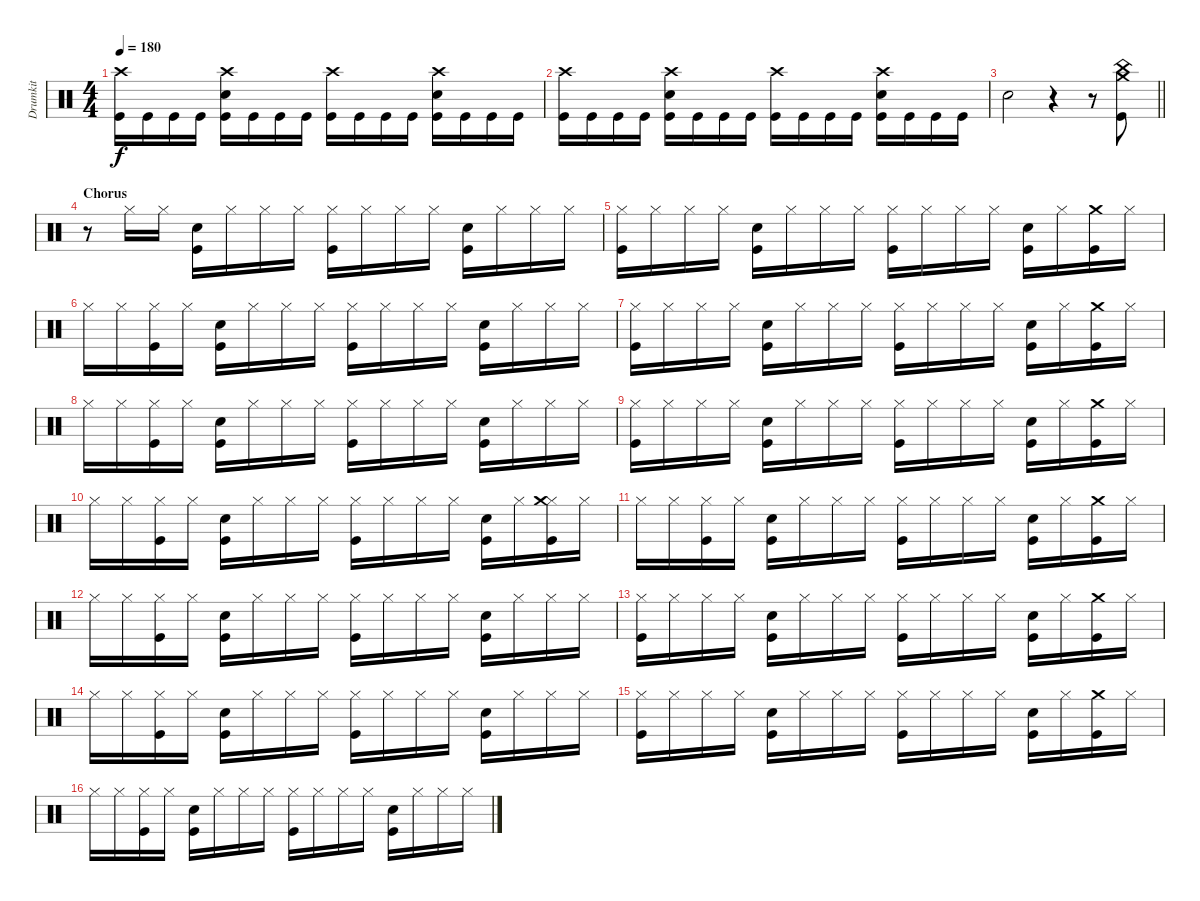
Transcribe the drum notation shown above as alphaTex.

\track ("Drumkit" "Drumkit") {instrument percussion}
\staff {score}
\articulation defaults
\ts (4 4)
\tempo 180
\clef neutral
\ks c
("Crash high (hit)" "Kick (hit)").16{dy f} "Kick (hit)".16 "Kick (hit)".16 "Kick (hit)".16 ("Crash high (hit)" "Snare (hit) 2" "Kick (hit)").16 "Kick (hit)".16 "Kick (hit)".16 "Kick (hit)".16 ("Crash high (hit)" "Kick (hit)").16 "Kick (hit)".16 "Kick (hit)".16 "Kick (hit)".16 ("Crash high (hit)" "Snare (hit) 2" "Kick (hit)").16 "Kick (hit)".16 "Kick (hit)".16 "Kick (hit)".16 |
("Crash high (hit)" "Kick (hit)").16 "Kick (hit)".16 "Kick (hit)".16 "Kick (hit)".16 ("Crash high (hit)" "Snare (hit) 2" "Kick (hit)").16 "Kick (hit)".16 "Kick (hit)".16 "Kick (hit)".16 ("Crash high (hit)" "Kick (hit)").16 "Kick (hit)".16 "Kick (hit)".16 "Kick (hit)".16 ("Crash high (hit)" "Snare (hit) 2" "Kick (hit)").16 "Kick (hit)".16 "Kick (hit)".16 "Kick (hit)".16 |
\barLineRight lightlight "Snare (hit) 2".2
r.4 r.8 ("Crash medium (hit)" "Kick (hit)" "China (hit)").8 |
\section ("" "Chorus")
r.8 "Hi-Hat (closed)".16 "Hi-Hat (closed)".16 ("Snare (hit) 2" "Kick (hit)").16 "Hi-Hat (closed)".16 "Hi-Hat (closed)".16 "Hi-Hat (closed)".16 ("Hi-Hat (closed)" "Kick (hit)").16 "Hi-Hat (closed)".16 "Hi-Hat (closed)".16 "Hi-Hat (closed)".16 ("Snare (hit) 2" "Kick (hit)").16 "Hi-Hat (closed)".16 "Hi-Hat (closed)".16 "Hi-Hat (closed)".16 |
("Hi-Hat (closed)" "Kick (hit)").16 "Hi-Hat (closed)".16 "Hi-Hat (closed)".16 "Hi-Hat (closed)".16 ("Snare (hit) 2" "Kick (hit)").16 "Hi-Hat (closed)".16 "Hi-Hat (closed)".16 "Hi-Hat (closed)".16 ("Hi-Hat (closed)" "Kick (hit)").16 "Hi-Hat (closed)".16 "Hi-Hat (closed)".16 "Hi-Hat (closed)".16 ("Snare (hit) 2" "Kick (hit)").16 "Hi-Hat (closed)".16 ("Crash medium (hit)" "Kick (hit)").16 "Hi-Hat (closed)".16 |
"Hi-Hat (closed)".16 "Hi-Hat (closed)".16 ("Hi-Hat (closed)" "Kick (hit)").16 "Hi-Hat (closed)".16 ("Snare (hit) 2" "Kick (hit)").16 "Hi-Hat (closed)".16 "Hi-Hat (closed)".16 "Hi-Hat (closed)".16 ("Hi-Hat (closed)" "Kick (hit)").16 "Hi-Hat (closed)".16 "Hi-Hat (closed)".16 "Hi-Hat (closed)".16 ("Snare (hit) 2" "Kick (hit)").16 "Hi-Hat (closed)".16 "Hi-Hat (closed)".16 "Hi-Hat (closed)".16 |
("Hi-Hat (closed)" "Kick (hit)").16 "Hi-Hat (closed)".16 "Hi-Hat (closed)".16 "Hi-Hat (closed)".16 ("Snare (hit) 2" "Kick (hit)").16 "Hi-Hat (closed)".16 "Hi-Hat (closed)".16 "Hi-Hat (closed)".16 ("Hi-Hat (closed)" "Kick (hit)").16 "Hi-Hat (closed)".16 "Hi-Hat (closed)".16 "Hi-Hat (closed)".16 ("Snare (hit) 2" "Kick (hit)").16 "Hi-Hat (closed)".16 ("Crash medium (hit)" "Kick (hit)").16 "Hi-Hat (closed)".16 |
"Hi-Hat (closed)".16 "Hi-Hat (closed)".16 ("Hi-Hat (closed)" "Kick (hit)").16 "Hi-Hat (closed)".16 ("Snare (hit) 2" "Kick (hit)").16 "Hi-Hat (closed)".16 "Hi-Hat (closed)".16 "Hi-Hat (closed)".16 ("Hi-Hat (closed)" "Kick (hit)").16 "Hi-Hat (closed)".16 "Hi-Hat (closed)".16 "Hi-Hat (closed)".16 ("Snare (hit) 2" "Kick (hit)").16 "Hi-Hat (closed)".16 "Hi-Hat (closed)".16 "Hi-Hat (closed)".16 |
("Hi-Hat (closed)" "Kick (hit)").16 "Hi-Hat (closed)".16 "Hi-Hat (closed)".16 "Hi-Hat (closed)".16 ("Snare (hit) 2" "Kick (hit)").16 "Hi-Hat (closed)".16 "Hi-Hat (closed)".16 "Hi-Hat (closed)".16 ("Hi-Hat (closed)" "Kick (hit)").16 "Hi-Hat (closed)".16 "Hi-Hat (closed)".16 "Hi-Hat (closed)".16 ("Snare (hit) 2" "Kick (hit)").16 "Hi-Hat (closed)".16 ("Crash medium (hit)" "Kick (hit)").16 "Hi-Hat (closed)".16 |
"Hi-Hat (closed)".16 "Hi-Hat (closed)".16 ("Hi-Hat (closed)" "Kick (hit)").16 "Hi-Hat (closed)".16 ("Snare (hit) 2" "Kick (hit)").16 "Hi-Hat (closed)".16 "Hi-Hat (closed)".16 "Hi-Hat (closed)".16 ("Hi-Hat (closed)" "Kick (hit)").16 "Hi-Hat (closed)".16 "Hi-Hat (closed)".16 "Hi-Hat (closed)".16 ("Snare (hit) 2" "Kick (hit)").16 "Hi-Hat (closed)".16 ("Kick (hit)" "Hi-Hat (closed)" "Crash medium (hit)").16 "Hi-Hat (closed)".16 |
"Hi-Hat (closed)".16 "Hi-Hat (closed)".16 ("Hi-Hat (closed)" "Kick (hit)").16 "Hi-Hat (closed)".16 ("Snare (hit) 2" "Kick (hit)").16 "Hi-Hat (closed)".16 "Hi-Hat (closed)".16 "Hi-Hat (closed)".16 ("Hi-Hat (closed)" "Kick (hit)").16 "Hi-Hat (closed)".16 "Hi-Hat (closed)".16 "Hi-Hat (closed)".16 ("Snare (hit) 2" "Kick (hit)").16 "Hi-Hat (closed)".16 ("Crash medium (hit)" "Kick (hit)").16 "Hi-Hat (closed)".16 |
"Hi-Hat (closed)".16 "Hi-Hat (closed)".16 ("Hi-Hat (closed)" "Kick (hit)").16 "Hi-Hat (closed)".16 ("Snare (hit) 2" "Kick (hit)").16 "Hi-Hat (closed)".16 "Hi-Hat (closed)".16 "Hi-Hat (closed)".16 ("Hi-Hat (closed)" "Kick (hit)").16 "Hi-Hat (closed)".16 "Hi-Hat (closed)".16 "Hi-Hat (closed)".16 ("Snare (hit) 2" "Kick (hit)").16 "Hi-Hat (closed)".16 "Hi-Hat (closed)".16 "Hi-Hat (closed)".16 |
("Hi-Hat (closed)" "Kick (hit)").16 "Hi-Hat (closed)".16 "Hi-Hat (closed)".16 "Hi-Hat (closed)".16 ("Snare (hit) 2" "Kick (hit)").16 "Hi-Hat (closed)".16 "Hi-Hat (closed)".16 "Hi-Hat (closed)".16 ("Hi-Hat (closed)" "Kick (hit)").16 "Hi-Hat (closed)".16 "Hi-Hat (closed)".16 "Hi-Hat (closed)".16 ("Snare (hit) 2" "Kick (hit)").16 "Hi-Hat (closed)".16 ("Crash medium (hit)" "Kick (hit)").16 "Hi-Hat (closed)".16 |
"Hi-Hat (closed)".16 "Hi-Hat (closed)".16 ("Hi-Hat (closed)" "Kick (hit)").16 "Hi-Hat (closed)".16 ("Snare (hit) 2" "Kick (hit)").16 "Hi-Hat (closed)".16 "Hi-Hat (closed)".16 "Hi-Hat (closed)".16 ("Hi-Hat (closed)" "Kick (hit)").16 "Hi-Hat (closed)".16 "Hi-Hat (closed)".16 "Hi-Hat (closed)".16 ("Snare (hit) 2" "Kick (hit)").16 "Hi-Hat (closed)".16 "Hi-Hat (closed)".16 "Hi-Hat (closed)".16 |
("Hi-Hat (closed)" "Kick (hit)").16 "Hi-Hat (closed)".16 "Hi-Hat (closed)".16 "Hi-Hat (closed)".16 ("Snare (hit) 2" "Kick (hit)").16 "Hi-Hat (closed)".16 "Hi-Hat (closed)".16 "Hi-Hat (closed)".16 ("Hi-Hat (closed)" "Kick (hit)").16 "Hi-Hat (closed)".16 "Hi-Hat (closed)".16 "Hi-Hat (closed)".16 ("Snare (hit) 2" "Kick (hit)").16 "Hi-Hat (closed)".16 ("Crash medium (hit)" "Kick (hit)").16 "Hi-Hat (closed)".16 |
"Hi-Hat (closed)".16 "Hi-Hat (closed)".16 ("Hi-Hat (closed)" "Kick (hit)").16 "Hi-Hat (closed)".16 ("Snare (hit) 2" "Kick (hit)").16 "Hi-Hat (closed)".16 "Hi-Hat (closed)".16 "Hi-Hat (closed)".16 ("Hi-Hat (closed)" "Kick (hit)").16 "Hi-Hat (closed)".16 "Hi-Hat (closed)".16 "Hi-Hat (closed)".16 ("Snare (hit) 2" "Kick (hit)").16 "Hi-Hat (closed)".16 "Hi-Hat (closed)".16 "Hi-Hat (closed)".16
